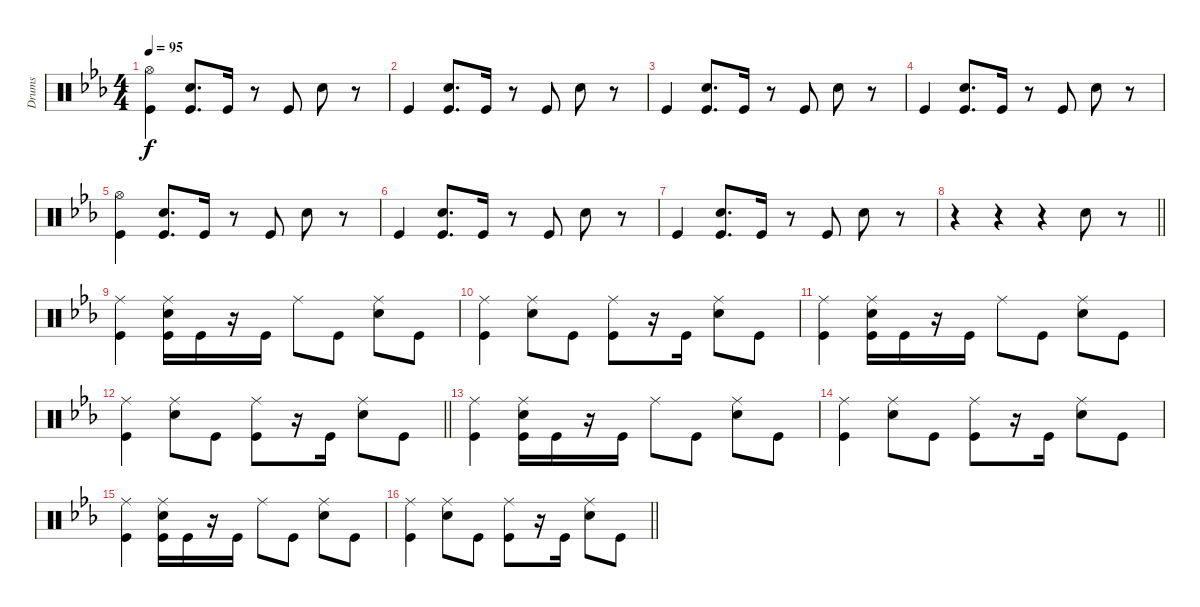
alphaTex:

\track ("Drums" "Drums") {instrument percussion}
\staff {score}
\articulation defaults
\ts (4 4)
\tempo 95
\clef neutral
\ks eb
("Hi-Hat (open)" "Kick (hit)").4{dy f} ("Kick (hit)" "Snare (hit) 2").8{d} "Kick (hit)".16 r.8 "Kick (hit)".8 "Snare (hit) 2".8 r.8 |
"Kick (hit)".4 ("Kick (hit)" "Snare (hit) 2").8{d} "Kick (hit)".16 r.8 "Kick (hit)".8 "Snare (hit) 2".8 r.8 |
"Kick (hit)".4 ("Kick (hit)" "Snare (hit) 2").8{d} "Kick (hit)".16 r.8 "Kick (hit)".8 "Snare (hit) 2".8 r.8 |
"Kick (hit)".4 ("Kick (hit)" "Snare (hit) 2").8{d} "Kick (hit)".16 r.8 "Kick (hit)".8 "Snare (hit) 2".8 r.8 |
("Hi-Hat (open)" "Kick (hit)").4 ("Kick (hit)" "Snare (hit) 2").8{d} "Kick (hit)".16 r.8 "Kick (hit)".8 "Snare (hit) 2".8 r.8 |
"Kick (hit)".4 ("Kick (hit)" "Snare (hit) 2").8{d} "Kick (hit)".16 r.8 "Kick (hit)".8 "Snare (hit) 2".8 r.8 |
"Kick (hit)".4 ("Kick (hit)" "Snare (hit) 2").8{d} "Kick (hit)".16 r.8 "Kick (hit)".8 "Snare (hit) 2".8 r.8 |
\barLineRight lightlight
r.4 r.4 r.4 "Snare (hit) 2".8 r.8 |
("Kick (hit)" "Ride (middle)").4 ("Kick (hit)" "Ride (middle)" "Snare (hit) 2").16 "Kick (hit)".16 r.16 "Kick (hit)".16 "Ride (middle)".8 "Kick (hit)".8 ("Ride (middle)" "Snare (hit) 2").8 "Kick (hit)".8 |
("Kick (hit)" "Ride (middle)").4 ("Ride (middle)" "Snare (hit) 2").8 "Kick (hit)".8 ("Kick (hit)" "Ride (middle)").8 r.16 "Kick (hit)".16 ("Ride (middle)" "Snare (hit) 2").8 "Kick (hit)".8 |
("Kick (hit)" "Ride (middle)").4 ("Kick (hit)" "Ride (middle)" "Snare (hit) 2").16 "Kick (hit)".16 r.16 "Kick (hit)".16 "Ride (middle)".8 "Kick (hit)".8 ("Ride (middle)" "Snare (hit) 2").8 "Kick (hit)".8 |
\barLineRight lightlight
("Kick (hit)" "Ride (middle)").4 ("Ride (middle)" "Snare (hit) 2").8 "Kick (hit)".8 ("Kick (hit)" "Ride (middle)").8 r.16 "Kick (hit)".16 ("Ride (middle)" "Snare (hit) 2").8 "Kick (hit)".8 |
("Kick (hit)" "Ride (middle)").4 ("Kick (hit)" "Ride (middle)" "Snare (hit) 2").16 "Kick (hit)".16 r.16 "Kick (hit)".16 "Ride (middle)".8 "Kick (hit)".8 ("Ride (middle)" "Snare (hit) 2").8 "Kick (hit)".8 |
("Kick (hit)" "Ride (middle)").4 ("Ride (middle)" "Snare (hit) 2").8 "Kick (hit)".8 ("Kick (hit)" "Ride (middle)").8 r.16 "Kick (hit)".16 ("Ride (middle)" "Snare (hit) 2").8 "Kick (hit)".8 |
("Kick (hit)" "Ride (middle)").4 ("Kick (hit)" "Ride (middle)" "Snare (hit) 2").16 "Kick (hit)".16 r.16 "Kick (hit)".16 "Ride (middle)".8 "Kick (hit)".8 ("Ride (middle)" "Snare (hit) 2").8 "Kick (hit)".8 |
\barLineRight lightlight
("Kick (hit)" "Ride (middle)").4 ("Ride (middle)" "Snare (hit) 2").8 "Kick (hit)".8 ("Kick (hit)" "Ride (middle)").8 r.16 "Kick (hit)".16 ("Ride (middle)" "Snare (hit) 2").8 "Kick (hit)".8
